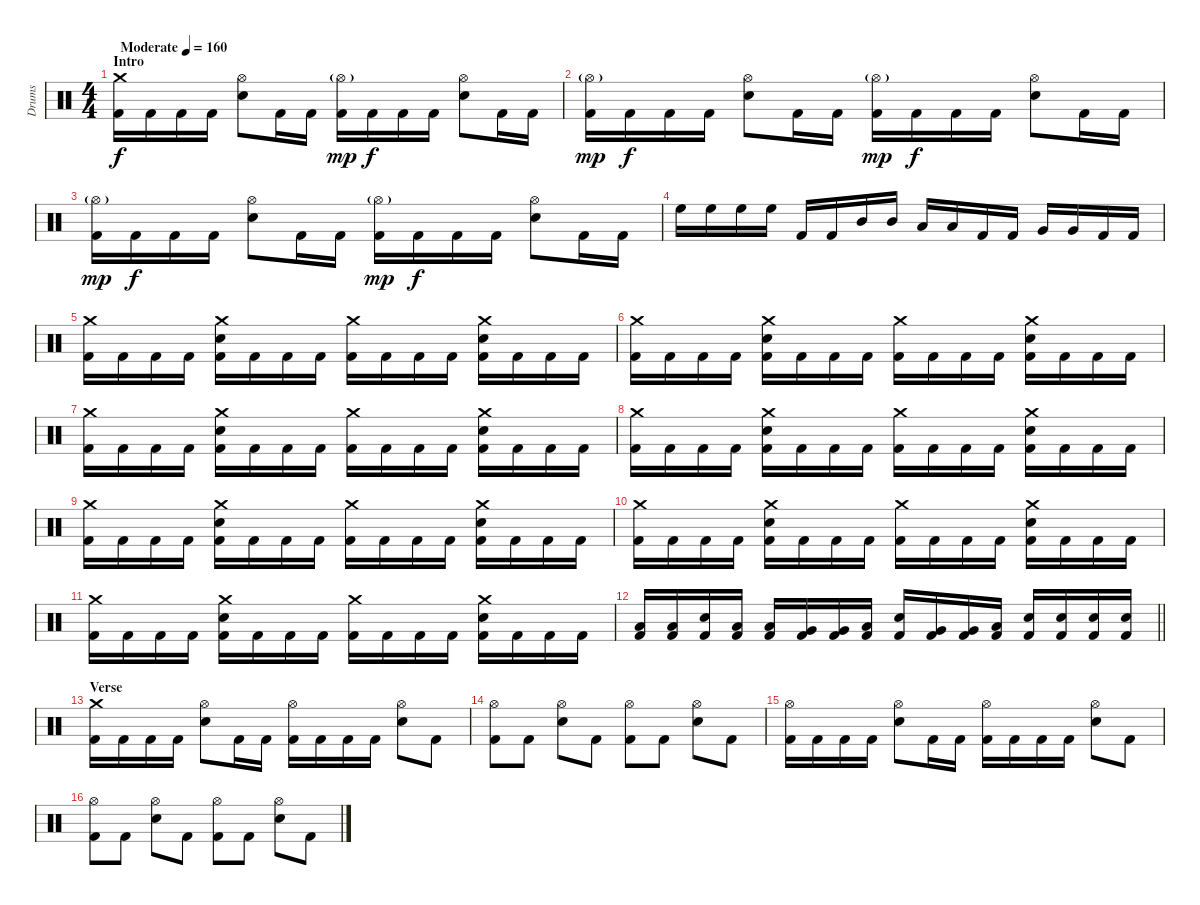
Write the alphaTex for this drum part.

\track ("Drums" "Drums") {instrument percussion}
\staff {score}
\articulation defaults
\ts (4 4)
\section ("" "Intro")
\tempo (160 "Moderate")
\clef neutral
\ks c
("Crash medium (hit)" "Kick (hit) 2").16{dy f} "Kick (hit) 2".16 "Kick (hit) 2".16 "Kick (hit) 2".16 ("Hi-Hat (open)" "Snare (hit) 2").8 "Kick (hit) 2".16 "Kick (hit) 2".16 ("Hi-Hat (open)"{g} "Kick (hit) 2").16{dy mp} "Kick (hit) 2".16{dy f} "Kick (hit) 2".16 "Kick (hit) 2".16 ("Hi-Hat (open)" "Snare (hit) 2").8 "Kick (hit) 2".16 "Kick (hit) 2".16 |
("Hi-Hat (open)"{g} "Kick (hit) 2").16{dy mp} "Kick (hit) 2".16{dy f} "Kick (hit) 2".16 "Kick (hit) 2".16 ("Hi-Hat (open)" "Snare (hit) 2").8 "Kick (hit) 2".16 "Kick (hit) 2".16 ("Hi-Hat (open)"{g} "Kick (hit) 2").16{dy mp} "Kick (hit) 2".16{dy f} "Kick (hit) 2".16 "Kick (hit) 2".16 ("Hi-Hat (open)" "Snare (hit) 2").8 "Kick (hit) 2".16 "Kick (hit) 2".16 |
("Hi-Hat (open)"{g} "Kick (hit) 2").16{dy mp} "Kick (hit) 2".16{dy f} "Kick (hit) 2".16 "Kick (hit) 2".16 ("Hi-Hat (open)" "Snare (hit) 2").8 "Kick (hit) 2".16 "Kick (hit) 2".16 ("Hi-Hat (open)"{g} "Kick (hit) 2").16{dy mp} "Kick (hit) 2".16{dy f} "Kick (hit) 2".16 "Kick (hit) 2".16 ("Hi-Hat (open)" "Snare (hit) 2").8 "Kick (hit) 2".16 "Kick (hit) 2".16 |
"High Floor Tom (hit)".16 "High Floor Tom (hit)".16 "High Floor Tom (hit)".16 "High Floor Tom (hit)".16 "Kick (hit) 2".16 "Kick (hit) 2".16 "Mid Tom (hit)".16 "Mid Tom (hit)".16 "Low Tom (hit)".16 "Low Tom (hit)".16 "Kick (hit) 2".16 "Kick (hit) 2".16 "Very Low Tom (hit)".16 "Very Low Tom (hit)".16 "Kick (hit) 2".16 "Kick (hit) 2".16 |
("Crash medium (hit)" "Kick (hit) 2").16 "Kick (hit) 2".16 "Kick (hit) 2".16 "Kick (hit) 2".16 ("Crash medium (hit)" "Snare (hit) 2" "Kick (hit) 2").16 "Kick (hit) 2".16 "Kick (hit) 2".16 "Kick (hit) 2".16 ("Crash medium (hit)" "Kick (hit) 2").16 "Kick (hit) 2".16 "Kick (hit) 2".16 "Kick (hit) 2".16 ("Crash medium (hit)" "Snare (hit) 2" "Kick (hit) 2").16 "Kick (hit) 2".16 "Kick (hit) 2".16 "Kick (hit) 2".16 |
("Crash medium (hit)" "Kick (hit) 2").16 "Kick (hit) 2".16 "Kick (hit) 2".16 "Kick (hit) 2".16 ("Crash medium (hit)" "Snare (hit) 2" "Kick (hit) 2").16 "Kick (hit) 2".16 "Kick (hit) 2".16 "Kick (hit) 2".16 ("Crash medium (hit)" "Kick (hit) 2").16 "Kick (hit) 2".16 "Kick (hit) 2".16 "Kick (hit) 2".16 ("Crash medium (hit)" "Snare (hit) 2" "Kick (hit) 2").16 "Kick (hit) 2".16 "Kick (hit) 2".16 "Kick (hit) 2".16 |
("Crash medium (hit)" "Kick (hit) 2").16 "Kick (hit) 2".16 "Kick (hit) 2".16 "Kick (hit) 2".16 ("Crash medium (hit)" "Snare (hit) 2" "Kick (hit) 2").16 "Kick (hit) 2".16 "Kick (hit) 2".16 "Kick (hit) 2".16 ("Crash medium (hit)" "Kick (hit) 2").16 "Kick (hit) 2".16 "Kick (hit) 2".16 "Kick (hit) 2".16 ("Crash medium (hit)" "Snare (hit) 2" "Kick (hit) 2").16 "Kick (hit) 2".16 "Kick (hit) 2".16 "Kick (hit) 2".16 |
("Crash medium (hit)" "Kick (hit) 2").16 "Kick (hit) 2".16 "Kick (hit) 2".16 "Kick (hit) 2".16 ("Crash medium (hit)" "Snare (hit) 2" "Kick (hit) 2").16 "Kick (hit) 2".16 "Kick (hit) 2".16 "Kick (hit) 2".16 ("Crash medium (hit)" "Kick (hit) 2").16 "Kick (hit) 2".16 "Kick (hit) 2".16 "Kick (hit) 2".16 ("Crash medium (hit)" "Snare (hit) 2" "Kick (hit) 2").16 "Kick (hit) 2".16 "Kick (hit) 2".16 "Kick (hit) 2".16 |
("Crash medium (hit)" "Kick (hit) 2").16 "Kick (hit) 2".16 "Kick (hit) 2".16 "Kick (hit) 2".16 ("Crash medium (hit)" "Snare (hit) 2" "Kick (hit) 2").16 "Kick (hit) 2".16 "Kick (hit) 2".16 "Kick (hit) 2".16 ("Crash medium (hit)" "Kick (hit) 2").16 "Kick (hit) 2".16 "Kick (hit) 2".16 "Kick (hit) 2".16 ("Crash medium (hit)" "Snare (hit) 2" "Kick (hit) 2").16 "Kick (hit) 2".16 "Kick (hit) 2".16 "Kick (hit) 2".16 |
("Crash medium (hit)" "Kick (hit) 2").16 "Kick (hit) 2".16 "Kick (hit) 2".16 "Kick (hit) 2".16 ("Crash medium (hit)" "Snare (hit) 2" "Kick (hit) 2").16 "Kick (hit) 2".16 "Kick (hit) 2".16 "Kick (hit) 2".16 ("Crash medium (hit)" "Kick (hit) 2").16 "Kick (hit) 2".16 "Kick (hit) 2".16 "Kick (hit) 2".16 ("Crash medium (hit)" "Snare (hit) 2" "Kick (hit) 2").16 "Kick (hit) 2".16 "Kick (hit) 2".16 "Kick (hit) 2".16 |
("Crash medium (hit)" "Kick (hit) 2").16 "Kick (hit) 2".16 "Kick (hit) 2".16 "Kick (hit) 2".16 ("Crash medium (hit)" "Snare (hit) 2" "Kick (hit) 2").16 "Kick (hit) 2".16 "Kick (hit) 2".16 "Kick (hit) 2".16 ("Crash medium (hit)" "Kick (hit) 2").16 "Kick (hit) 2".16 "Kick (hit) 2".16 "Kick (hit) 2".16 ("Crash medium (hit)" "Snare (hit) 2" "Kick (hit) 2").16 "Kick (hit) 2".16 "Kick (hit) 2".16 "Kick (hit) 2".16 |
\barLineRight lightlight
("Low Tom (hit)" "Kick (hit) 2").16 ("Low Tom (hit)" "Kick (hit) 2").16 ("Snare (hit) 2" "Kick (hit) 2").16 ("Low Tom (hit)" "Kick (hit) 2").16 ("Low Tom (hit)" "Kick (hit) 2").16 ("Very Low Tom (hit)" "Kick (hit) 2").16 ("Very Low Tom (hit)" "Kick (hit) 2").16 ("Low Floor Tom (hit)" "Kick (hit) 2").16 ("Snare (hit) 2" "Kick (hit) 2").16 ("Very Low Tom (hit)" "Kick (hit) 2").16 ("Very Low Tom (hit)" "Kick (hit) 2").16 ("Low Floor Tom (hit)" "Kick (hit) 2").16 ("Snare (hit) 2" "Kick (hit) 2").16 ("Snare (hit) 2" "Kick (hit) 2").16 ("Snare (hit) 2" "Kick (hit) 2").16 ("Snare (hit) 2" "Kick (hit) 2").16 |
\section ("" "Verse")
("Crash medium (hit)" "Kick (hit) 2").16 "Kick (hit) 2".16 "Kick (hit) 2".16 "Kick (hit) 2".16 ("Hi-Hat (open)" "Snare (hit) 2").8 "Kick (hit) 2".16 "Kick (hit) 2".16 ("Hi-Hat (open)" "Kick (hit) 2").16 "Kick (hit) 2".16 "Kick (hit) 2".16 "Kick (hit) 2".16 ("Hi-Hat (open)" "Snare (hit) 2").8 "Kick (hit) 2".8 |
("Hi-Hat (open)" "Kick (hit) 2").8 "Kick (hit) 2".8 ("Hi-Hat (open)" "Snare (hit) 2").8 "Kick (hit) 2".8 ("Hi-Hat (open)" "Kick (hit) 2").8 "Kick (hit) 2".8 ("Hi-Hat (open)" "Snare (hit) 2").8 "Kick (hit) 2".8 |
("Hi-Hat (open)" "Kick (hit) 2").16 "Kick (hit) 2".16 "Kick (hit) 2".16 "Kick (hit) 2".16 ("Hi-Hat (open)" "Snare (hit) 2").8 "Kick (hit) 2".16 "Kick (hit) 2".16 ("Hi-Hat (open)" "Kick (hit) 2").16 "Kick (hit) 2".16 "Kick (hit) 2".16 "Kick (hit) 2".16 ("Hi-Hat (open)" "Snare (hit) 2").8 "Kick (hit) 2".8 |
("Hi-Hat (open)" "Kick (hit) 2").8 "Kick (hit) 2".8 ("Hi-Hat (open)" "Snare (hit) 2").8 "Kick (hit) 2".8 ("Hi-Hat (open)" "Kick (hit) 2").8 "Kick (hit) 2".8 ("Hi-Hat (open)" "Snare (hit) 2").8 "Kick (hit) 2".8
